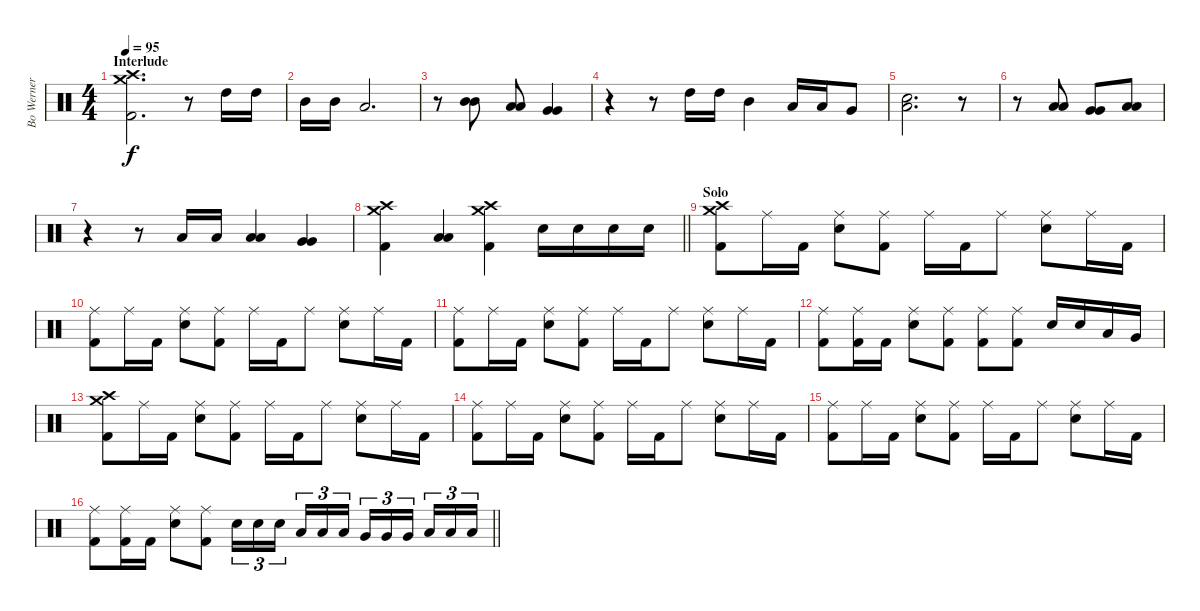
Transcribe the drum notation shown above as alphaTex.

\track ("Bo Werner" "Bo Werner") {instrument percussion}
\staff {score}
\articulation defaults
\ts (4 4)
\section ("" "Interlude")
\tempo 95
\clef neutral
\ks c
("Crash medium (hit)" "Crash high (hit)" "Kick (hit) 2").2{d dy f} r.8 "High Tom (hit)".16 "High Tom (hit)".16 |
"Mid Tom (hit)".16 "Mid Tom (hit)".16 "Low Tom (hit)".2{d} |
r.8 ("Mid Tom (hit)" "Mid Tom (hit)").8 ("Low Tom (hit)" "Low Tom (hit)").8 ("Very Low Tom (hit)" "Very Low Tom (hit)").4 |
r.4 r.8 "High Tom (hit)".16 "High Tom (hit)".16 "Mid Tom (hit)".4 "Low Tom (hit)".16 "Low Tom (hit)".16 "Very Low Tom (hit)".8 |
("Snare (hit) 2" "Low Floor Tom (hit)").2{d} r.8 |
r.8 ("Low Tom (hit)" "Low Tom (hit)").8 ("Very Low Tom (hit)" "Very Low Tom (hit)").8 ("Low Floor Tom (hit)" "Low Floor Tom (hit)").8 |
r.4 r.8 "Low Tom (hit)".16 "Low Tom (hit)".16 ("Low Tom (hit)" "Low Tom (hit)").4 ("Very Low Tom (hit)" "Very Low Tom (hit)").4 |
\barLineRight lightlight
("Crash medium (hit)" "Crash high (hit)" "Kick (hit) 2").4 ("Low Tom (hit)" "Low Tom (hit)").4 ("Crash medium (hit)" "Crash high (hit)" "Kick (hit) 2").4 "Snare (hit) 2".16 "Snare (hit) 2".16 "Snare (hit) 2".16 "Snare (hit) 2".16 |
\section ("" "Solo")
("Crash medium (hit)" "Crash high (hit)" "Kick (hit) 2").8 "Ride (middle)".16 "Kick (hit) 2".16 ("Ride (middle)" "Snare (hit) 2").8 ("Ride (middle)" "Kick (hit) 2").8 "Ride (middle)".16 "Kick (hit) 2".16 "Ride (middle)".8 ("Ride (middle)" "Snare (hit) 2").8 "Ride (middle)".16 "Kick (hit) 2".16 |
("Ride (middle)" "Kick (hit) 2").8 "Ride (middle)".16 "Kick (hit) 2".16 ("Ride (middle)" "Snare (hit) 2").8 ("Ride (middle)" "Kick (hit) 2").8 "Ride (middle)".16 "Kick (hit) 2".16 "Ride (middle)".8 ("Ride (middle)" "Snare (hit) 2").8 "Ride (middle)".16 "Kick (hit) 2".16 |
("Ride (middle)" "Kick (hit) 2").8 "Ride (middle)".16 "Kick (hit) 2".16 ("Ride (middle)" "Snare (hit) 2").8 ("Ride (middle)" "Kick (hit) 2").8 "Ride (middle)".16 "Kick (hit) 2".16 "Ride (middle)".8 ("Ride (middle)" "Snare (hit) 2").8 "Ride (middle)".16 "Kick (hit) 2".16 |
("Ride (middle)" "Kick (hit) 2").8 ("Ride (middle)" "Kick (hit) 2").16 "Kick (hit) 2".16 ("Ride (middle)" "Snare (hit) 2").8 ("Ride (middle)" "Kick (hit) 2").8 ("Ride (middle)" "Kick (hit) 2").8 ("Ride (middle)" "Kick (hit) 2").8 "Snare (hit) 2".16 "Snare (hit) 2".16 "Low Tom (hit)".16 "Very Low Tom (hit)".16 |
("Crash medium (hit)" "Crash high (hit)" "Kick (hit) 2").8 "Ride (middle)".16 "Kick (hit) 2".16 ("Ride (middle)" "Snare (hit) 2").8 ("Ride (middle)" "Kick (hit) 2").8 "Ride (middle)".16 "Kick (hit) 2".16 "Ride (middle)".8 ("Ride (middle)" "Snare (hit) 2").8 "Ride (middle)".16 "Kick (hit) 2".16 |
("Ride (middle)" "Kick (hit) 2").8 "Ride (middle)".16 "Kick (hit) 2".16 ("Ride (middle)" "Snare (hit) 2").8 ("Ride (middle)" "Kick (hit) 2").8 "Ride (middle)".16 "Kick (hit) 2".16 "Ride (middle)".8 ("Ride (middle)" "Snare (hit) 2").8 "Ride (middle)".16 "Kick (hit) 2".16 |
("Ride (middle)" "Kick (hit) 2").8 "Ride (middle)".16 "Kick (hit) 2".16 ("Ride (middle)" "Snare (hit) 2").8 ("Ride (middle)" "Kick (hit) 2").8 "Ride (middle)".16 "Kick (hit) 2".16 "Ride (middle)".8 ("Ride (middle)" "Snare (hit) 2").8 "Ride (middle)".16 "Kick (hit) 2".16 |
\barLineRight lightlight
("Ride (middle)" "Kick (hit) 2").8 ("Ride (middle)" "Kick (hit) 2").16 "Kick (hit) 2".16 ("Ride (middle)" "Snare (hit) 2").8 ("Ride (middle)" "Kick (hit) 2").8 "Snare (hit) 2".16{tu (3 2)} "Snare (hit) 2".16{tu (3 2)} "Snare (hit) 2".16{tu (3 2) beam splitsecondary} "Low Tom (hit)".16{tu (3 2)} "Low Tom (hit)".16{tu (3 2)} "Low Tom (hit)".16{tu (3 2)} "Very Low Tom (hit)".16{tu (3 2)} "Very Low Tom (hit)".16{tu (3 2)} "Very Low Tom (hit)".16{tu (3 2) beam splitsecondary} "Low Floor Tom (hit)".16{tu (3 2)} "Low Floor Tom (hit)".16{tu (3 2)} "Low Floor Tom (hit)".16{tu (3 2)}
